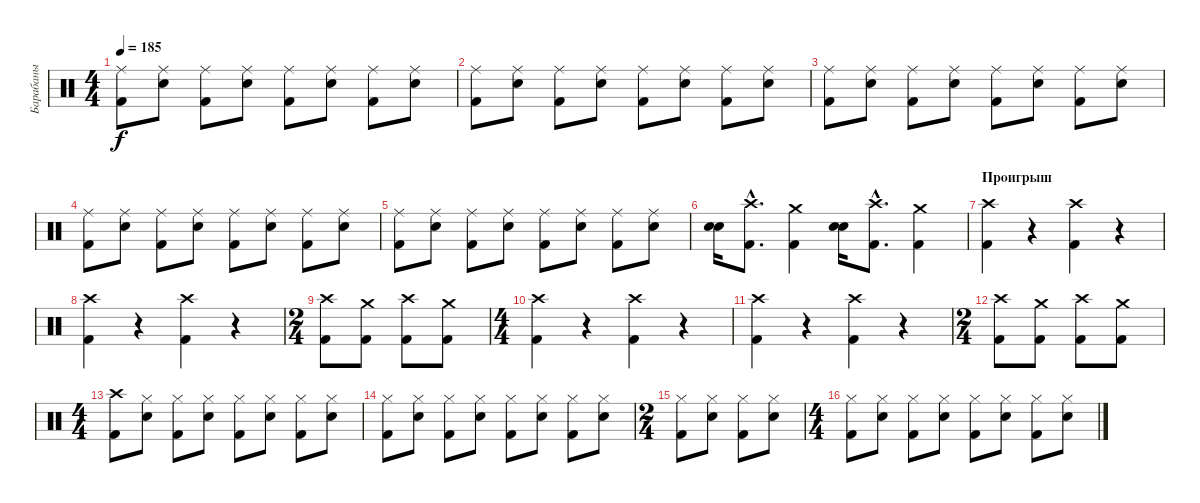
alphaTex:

\track ("Барабаны" "Барабаны") {instrument percussion}
\staff {score}
\articulation defaults
\ts (4 4)
\tempo 185
\clef neutral
\ks c
("Ride (middle)" "Kick (hit) 2").8{dy f} ("Ride (middle)" "Snare (hit) 2").8 ("Ride (middle)" "Kick (hit) 2").8 ("Ride (middle)" "Snare (hit) 2").8 ("Ride (middle)" "Kick (hit) 2").8 ("Ride (middle)" "Snare (hit) 2").8 ("Ride (middle)" "Kick (hit) 2").8 ("Ride (middle)" "Snare (hit) 2").8 |
("Ride (middle)" "Kick (hit) 2").8 ("Ride (middle)" "Snare (hit) 2").8 ("Ride (middle)" "Kick (hit) 2").8 ("Ride (middle)" "Snare (hit) 2").8 ("Ride (middle)" "Kick (hit) 2").8 ("Ride (middle)" "Snare (hit) 2").8 ("Ride (middle)" "Kick (hit) 2").8 ("Ride (middle)" "Snare (hit) 2").8 |
("Ride (middle)" "Kick (hit) 2").8 ("Ride (middle)" "Snare (hit) 2").8 ("Ride (middle)" "Kick (hit) 2").8 ("Ride (middle)" "Snare (hit) 2").8 ("Ride (middle)" "Kick (hit) 2").8 ("Ride (middle)" "Snare (hit) 2").8 ("Ride (middle)" "Kick (hit) 2").8 ("Ride (middle)" "Snare (hit) 2").8 |
("Ride (middle)" "Kick (hit) 2").8 ("Ride (middle)" "Snare (hit) 2").8 ("Ride (middle)" "Kick (hit) 2").8 ("Ride (middle)" "Snare (hit) 2").8 ("Ride (middle)" "Kick (hit) 2").8 ("Ride (middle)" "Snare (hit) 2").8 ("Ride (middle)" "Kick (hit) 2").8 ("Ride (middle)" "Snare (hit) 2").8 |
("Ride (middle)" "Kick (hit) 2").8 ("Ride (middle)" "Snare (hit) 2").8 ("Ride (middle)" "Kick (hit) 2").8 ("Ride (middle)" "Snare (hit) 2").8 ("Ride (middle)" "Kick (hit) 2").8 ("Ride (middle)" "Snare (hit) 2").8 ("Ride (middle)" "Kick (hit) 2").8 ("Ride (middle)" "Snare (hit) 2").8 |
("Snare (hit) 2" "Snare (hit) 2").16 ("Crash high (hit)"{hac} "Kick (hit) 2"{hac}).8{d} ("Crash medium (hit)" "Kick (hit) 2").4 ("Snare (hit) 2" "Snare (hit) 2").16 ("Crash high (hit)"{hac} "Kick (hit) 2"{hac}).8{d} ("Crash medium (hit)" "Kick (hit) 2").4 |
\section ("" "Проигрыш")
("Crash high (hit)" "Kick (hit) 2").4 r.4 ("Crash high (hit)" "Kick (hit) 2").4 r.4 |
("Crash high (hit)" "Kick (hit) 2").4 r.4 ("Crash high (hit)" "Kick (hit) 2").4 r.4 |
\ts (2 4)
("Crash high (hit)" "Kick (hit) 2").8 ("Crash medium (hit)" "Kick (hit) 2").8 ("Crash high (hit)" "Kick (hit) 2").8 ("Crash medium (hit)" "Kick (hit) 2").8 |
\ts (4 4)
("Crash high (hit)" "Kick (hit) 2").4 r.4 ("Crash high (hit)" "Kick (hit) 2").4 r.4 |
("Crash high (hit)" "Kick (hit) 2").4 r.4 ("Crash high (hit)" "Kick (hit) 2").4 r.4 |
\ts (2 4)
("Crash high (hit)" "Kick (hit) 2").8 ("Crash medium (hit)" "Kick (hit) 2").8 ("Crash high (hit)" "Kick (hit) 2").8 ("Crash medium (hit)" "Kick (hit) 2").8 |
\ts (4 4)
("Crash high (hit)" "Kick (hit) 2").8 ("Hi-Hat (closed)" "Snare (hit) 2").8 ("Hi-Hat (closed)" "Kick (hit) 2").8 ("Hi-Hat (closed)" "Snare (hit) 2").8 ("Hi-Hat (closed)" "Kick (hit) 2").8 ("Hi-Hat (closed)" "Snare (hit) 2").8 ("Hi-Hat (closed)" "Kick (hit) 2").8 ("Hi-Hat (closed)" "Snare (hit) 2").8 |
("Hi-Hat (closed)" "Kick (hit) 2").8 ("Hi-Hat (closed)" "Snare (hit) 2").8 ("Hi-Hat (closed)" "Kick (hit) 2").8 ("Hi-Hat (closed)" "Snare (hit) 2").8 ("Hi-Hat (closed)" "Kick (hit) 2").8 ("Hi-Hat (closed)" "Snare (hit) 2").8 ("Hi-Hat (closed)" "Kick (hit) 2").8 ("Hi-Hat (closed)" "Snare (hit) 2").8 |
\ts (2 4)
("Hi-Hat (closed)" "Kick (hit) 2").8 ("Hi-Hat (closed)" "Snare (hit) 2").8 ("Hi-Hat (closed)" "Kick (hit) 2").8 ("Hi-Hat (closed)" "Snare (hit) 2").8 |
\ts (4 4)
("Hi-Hat (closed)" "Kick (hit) 2").8 ("Hi-Hat (closed)" "Snare (hit) 2").8 ("Hi-Hat (closed)" "Kick (hit) 2").8 ("Hi-Hat (closed)" "Snare (hit) 2").8 ("Hi-Hat (closed)" "Kick (hit) 2").8 ("Hi-Hat (closed)" "Snare (hit) 2").8 ("Hi-Hat (closed)" "Kick (hit) 2").8 ("Hi-Hat (closed)" "Snare (hit) 2").8
